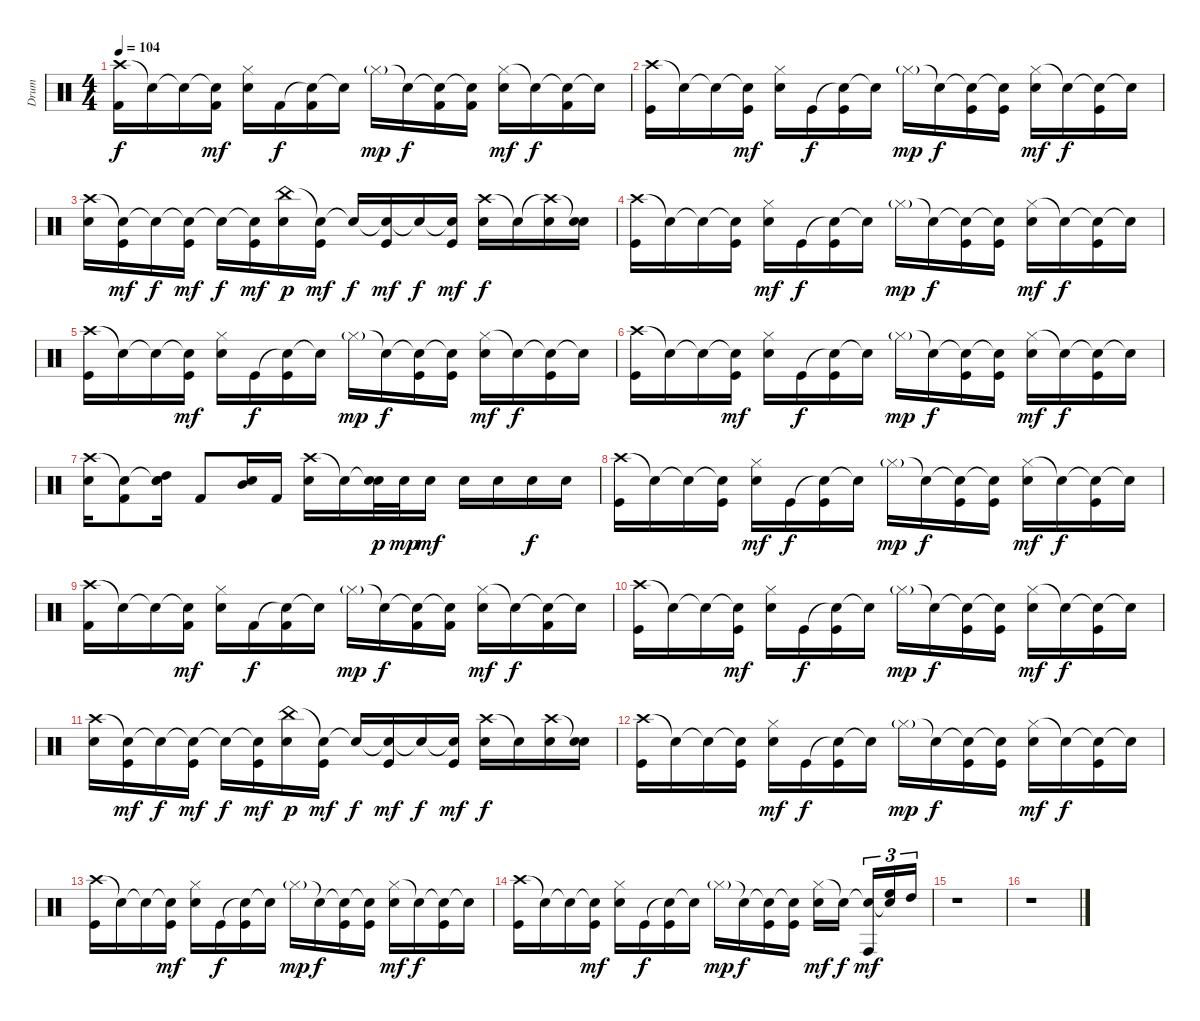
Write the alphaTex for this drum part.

\track ("Drum" "Drum") {instrument percussion}
\staff {score}
\articulation defaults
\ts (4 4)
\tempo 104
\clef neutral
\ks c
("Crash high (hit)" "Kick (hit) 2").16{dy f} "Snare (hit)"{t}.16 "Snare (hit)"{t}.16 ("Snare (hit)"{t} "Kick (hit) 2").16{dy mf} ("Hi-Hat (closed)" "Snare (hit) 2").16 "Kick (hit) 2".16{dy f} ("Snare (hit)"{t} "Kick (hit) 2").16 "Snare (hit)"{t}.16 "Hi-Hat (closed)"{g}.16{dy mp} "Snare (hit)"{t}.16{dy f} ("Snare (hit)"{t} "Kick (hit) 2").16 ("Snare (hit)"{t} "Kick (hit) 2").16 ("Hi-Hat (closed)" "Snare (hit) 2").16{dy mf} "Snare (hit)"{t}.16{dy f} ("Snare (hit)"{t} "Kick (hit) 2").16 "Snare (hit)"{t}.16 |
("Crash high (hit)" "Kick (hit)").16 "Snare (hit)"{t}.16 "Snare (hit)"{t}.16 ("Snare (hit)"{t} "Kick (hit)").16{dy mf} ("Hi-Hat (closed)" "Snare (hit) 2").16 "Kick (hit)".16{dy f} ("Snare (hit)"{t} "Kick (hit)").16 "Snare (hit)"{t}.16 "Hi-Hat (closed)"{g}.16{dy mp} "Snare (hit)"{t}.16{dy f} ("Snare (hit)"{t} "Kick (hit)").16 ("Snare (hit)"{t} "Kick (hit)").16 ("Hi-Hat (closed)" "Snare (hit) 2").16{dy mf} "Snare (hit)"{t}.16{dy f} ("Snare (hit)"{t} "Kick (hit)").16 "Snare (hit)"{t}.16 |
("Crash high (hit)" "Snare (hit) 2").16 ("Snare (hit)"{t} "Kick (hit)").16{dy mf} "Snare (hit)"{t}.16{dy f} ("Snare (hit)"{t} "Kick (hit)").16{dy mf} "Snare (hit)"{t}.16{dy f} ("Snare (hit)"{t} "Kick (hit)").16{dy mf} ("China (hit)" "Snare (hit) 2").16{dy p} ("Snare (hit)"{t} "Kick (hit)").16{dy mf} "Snare (hit)"{t}.16{dy f} ("Snare (hit)"{t} "Kick (hit)").16{dy mf} "Snare (hit)"{t}.16{dy f} ("Snare (hit)"{t} "Kick (hit)").16{dy mf} ("Crash high (hit)" "Snare (hit) 2").16{dy f} "Snare (hit)"{t}.16 ("Crash high (hit)"{t} "Snare (hit) 2").16 ("Snare (hit)"{t} "Snare (hit) 2").16 |
("Crash high (hit)" "Kick (hit)").16 "Snare (hit)"{t}.16 "Snare (hit)"{t}.16 ("Snare (hit)"{t} "Kick (hit)").16 ("Hi-Hat (closed)" "Snare (hit) 2").16{dy mf} "Kick (hit)".16{dy f} ("Snare (hit)"{t} "Kick (hit)").16 "Snare (hit)"{t}.16 "Hi-Hat (closed)"{g}.16{dy mp} "Snare (hit)"{t}.16{dy f} ("Snare (hit)"{t} "Kick (hit)").16 ("Snare (hit)"{t} "Kick (hit)").16 ("Hi-Hat (closed)" "Snare (hit) 2").16{dy mf} "Snare (hit)"{t}.16{dy f} ("Snare (hit)"{t} "Kick (hit)").16 "Snare (hit)"{t}.16 |
("Crash high (hit)" "Kick (hit)").16 "Snare (hit)"{t}.16 "Snare (hit)"{t}.16 ("Snare (hit)"{t} "Kick (hit)").16{dy mf} ("Hi-Hat (closed)" "Snare (hit) 2").16 "Kick (hit)".16{dy f} ("Snare (hit)"{t} "Kick (hit)").16 "Snare (hit)"{t}.16 "Hi-Hat (closed)"{g}.16{dy mp} "Snare (hit)"{t}.16{dy f} ("Snare (hit)"{t} "Kick (hit)").16 ("Snare (hit)"{t} "Kick (hit)").16 ("Hi-Hat (closed)" "Snare (hit) 2").16{dy mf} "Snare (hit)"{t}.16{dy f} ("Snare (hit)"{t} "Kick (hit)").16 "Snare (hit)"{t}.16 |
("Crash high (hit)" "Kick (hit)").16 "Snare (hit)"{t}.16 "Snare (hit)"{t}.16 ("Snare (hit)"{t} "Kick (hit)").16{dy mf} ("Hi-Hat (closed)" "Snare (hit) 2").16 "Kick (hit)".16{dy f} ("Snare (hit)"{t} "Kick (hit)").16 "Snare (hit)"{t}.16 "Hi-Hat (closed)"{g}.16{dy mp} "Snare (hit)"{t}.16{dy f} ("Snare (hit)"{t} "Kick (hit)").16 ("Snare (hit)"{t} "Kick (hit)").16 ("Hi-Hat (closed)" "Snare (hit) 2").16{dy mf} "Snare (hit)"{t}.16{dy f} ("Snare (hit)"{t} "Kick (hit)").16 "Snare (hit)"{t}.16 |
("Crash high (hit)" "Snare (hit) 2").16 ("Snare (hit)"{t} "Kick (hit) 2").8 ("Snare (hit)"{t} "High Tom (hit)" "Snare (hit) 2").16 "Kick (hit) 2".8 ("Mid Tom (hit)" "Snare (hit) 2").16 "Kick (hit) 2".16 ("Crash high (hit)" "Snare (hit) 2").16 "Snare (hit)"{t}.16 ("Snare (hit)"{t} "Snare (hit) 2").32{dy p} "Snare (hit) 2".32{dy mp} "Snare (hit) 2".16{dy mf} "Snare (hit) 2".16 "Snare (hit) 2".16 "Snare (hit) 2".16{dy f} "Snare (hit) 2".16 |
("Crash high (hit)" "Kick (hit)").16 "Snare (hit)"{t}.16 "Snare (hit)"{t}.16 ("Snare (hit)"{t} "Kick (hit)").16 ("Hi-Hat (closed)" "Snare (hit) 2").16{dy mf} "Kick (hit)".16{dy f} ("Snare (hit)"{t} "Kick (hit)").16 "Snare (hit)"{t}.16 "Hi-Hat (closed)"{g}.16{dy mp} "Snare (hit)"{t}.16{dy f} ("Snare (hit)"{t} "Kick (hit)").16 ("Snare (hit)"{t} "Kick (hit)").16 ("Hi-Hat (closed)" "Snare (hit) 2").16{dy mf} "Snare (hit)"{t}.16{dy f} ("Snare (hit)"{t} "Kick (hit)").16 "Snare (hit)"{t}.16 |
("Crash high (hit)" "Kick (hit) 2").16 "Snare (hit)"{t}.16 "Snare (hit)"{t}.16 ("Snare (hit)"{t} "Kick (hit) 2").16{dy mf} ("Hi-Hat (closed)" "Snare (hit) 2").16 "Kick (hit) 2".16{dy f} ("Snare (hit)"{t} "Kick (hit) 2").16 "Snare (hit)"{t}.16 "Hi-Hat (closed)"{g}.16{dy mp} "Snare (hit)"{t}.16{dy f} ("Snare (hit)"{t} "Kick (hit) 2").16 ("Snare (hit)"{t} "Kick (hit) 2").16 ("Hi-Hat (closed)" "Snare (hit) 2").16{dy mf} "Snare (hit)"{t}.16{dy f} ("Snare (hit)"{t} "Kick (hit) 2").16 "Snare (hit)"{t}.16 |
("Crash high (hit)" "Kick (hit)").16 "Snare (hit)"{t}.16 "Snare (hit)"{t}.16 ("Snare (hit)"{t} "Kick (hit)").16{dy mf} ("Hi-Hat (closed)" "Snare (hit) 2").16 "Kick (hit)".16{dy f} ("Snare (hit)"{t} "Kick (hit)").16 "Snare (hit)"{t}.16 "Hi-Hat (closed)"{g}.16{dy mp} "Snare (hit)"{t}.16{dy f} ("Snare (hit)"{t} "Kick (hit)").16 ("Snare (hit)"{t} "Kick (hit)").16 ("Hi-Hat (closed)" "Snare (hit) 2").16{dy mf} "Snare (hit)"{t}.16{dy f} ("Snare (hit)"{t} "Kick (hit)").16 "Snare (hit)"{t}.16 |
("Crash high (hit)" "Snare (hit) 2").16 ("Snare (hit)"{t} "Kick (hit)").16{dy mf} "Snare (hit)"{t}.16{dy f} ("Snare (hit)"{t} "Kick (hit)").16{dy mf} "Snare (hit)"{t}.16{dy f} ("Snare (hit)"{t} "Kick (hit)").16{dy mf} ("China (hit)" "Snare (hit) 2").16{dy p} ("Snare (hit)"{t} "Kick (hit)").16{dy mf} "Snare (hit)"{t}.16{dy f} ("Snare (hit)"{t} "Kick (hit)").16{dy mf} "Snare (hit)"{t}.16{dy f} ("Snare (hit)"{t} "Kick (hit)").16{dy mf} ("Crash high (hit)" "Snare (hit) 2").16{dy f} "Snare (hit)"{t}.16 ("Crash high (hit)" "Snare (hit) 2").16 ("Snare (hit)"{t} "Snare (hit) 2").16 |
("Crash high (hit)" "Kick (hit)").16 "Snare (hit)"{t}.16 "Snare (hit)"{t}.16 ("Snare (hit)"{t} "Kick (hit)").16 ("Hi-Hat (closed)" "Snare (hit) 2").16{dy mf} "Kick (hit)".16{dy f} ("Snare (hit)"{t} "Kick (hit)").16 "Snare (hit)"{t}.16 "Hi-Hat (closed)"{g}.16{dy mp} "Snare (hit)"{t}.16{dy f} ("Snare (hit)"{t} "Kick (hit)").16 ("Snare (hit)"{t} "Kick (hit)").16 ("Hi-Hat (closed)" "Snare (hit) 2").16{dy mf} "Snare (hit)"{t}.16{dy f} ("Snare (hit)"{t} "Kick (hit)").16 "Snare (hit)"{t}.16 |
("Crash high (hit)" "Kick (hit)").16 "Snare (hit)"{t}.16 "Snare (hit)"{t}.16 ("Snare (hit)"{t} "Kick (hit)").16{dy mf} ("Hi-Hat (closed)" "Snare (hit) 2").16 "Kick (hit)".16{dy f} ("Snare (hit)"{t} "Kick (hit)").16 "Snare (hit)"{t}.16 "Hi-Hat (closed)"{g}.16{dy mp} "Snare (hit)"{t}.16{dy f} ("Snare (hit)"{t} "Kick (hit)").16 ("Snare (hit)"{t} "Kick (hit)").16 ("Hi-Hat (closed)" "Snare (hit) 2").16{dy mf} "Snare (hit)"{t}.16{dy f} ("Snare (hit)"{t} "Kick (hit)").16 "Snare (hit)"{t}.16 |
("Crash high (hit)" "Kick (hit)").16 "Snare (hit)"{t}.16 "Snare (hit)"{t}.16 ("Snare (hit)"{t} "Kick (hit)").16{dy mf} ("Hi-Hat (closed)" "Snare (hit) 2").16 "Kick (hit)".16{dy f} ("Snare (hit)"{t} "Kick (hit)").16 "Snare (hit)"{t}.16 "Hi-Hat (closed)"{g}.16{dy mp} "Snare (hit)"{t}.16{dy f} ("Snare (hit)"{t} "Kick (hit)").16 ("Snare (hit)"{t} "Kick (hit)").16 ("Hi-Hat (closed)" "Snare (hit) 2").16{dy mf} "Snare (hit)"{t}.16{dy f beam splitsecondary} ("Snare (hit)"{t} "Conga high (hit)").16{tu (3 2) dy mf} ("Snare (hit)"{t} "High Floor Tom (hit)").16{tu (3 2)} "High Tom (hit)".16{tu (3 2)} |
r.1 |
r.1
